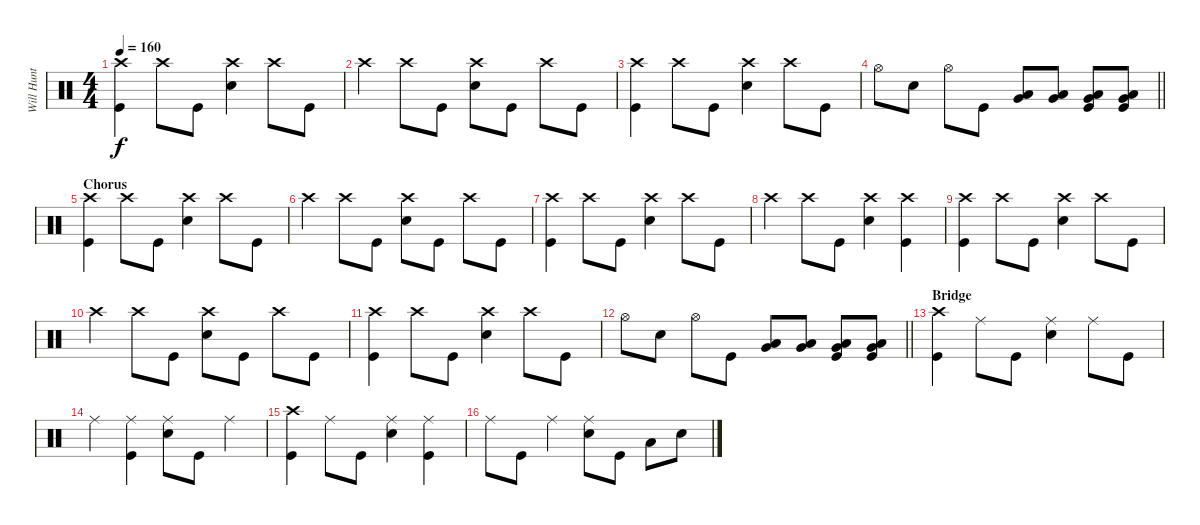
\track ("Will Hunt" "Will Hunt") {instrument percussion}
\staff {score}
\articulation defaults
\ts (4 4)
\tempo 160
\clef neutral
\ks c
("Crash high (hit)" "Kick (hit)").4{dy f} "Crash high (hit)".8 "Kick (hit)".8 ("Crash high (hit)" "Snare (hit) 2").4 "Crash high (hit)".8 "Kick (hit)".8 |
"Crash high (hit)".4 "Crash high (hit)".8 "Kick (hit)".8 ("Crash high (hit)" "Snare (hit) 2").8 "Kick (hit)".8 "Crash high (hit)".8 "Kick (hit)".8 |
("Crash high (hit)" "Kick (hit)").4 "Crash high (hit)".8 "Kick (hit)".8 ("Crash high (hit)" "Snare (hit) 2").4 "Crash high (hit)".8 "Kick (hit)".8 |
\barLineRight lightlight "Hi-Hat (open)".8 "Snare (hit) 2".8 "Hi-Hat (open)".8 "Kick (hit)".8
("Very Low Tom (hit)" "Low Floor Tom (hit)").8 ("Very Low Tom (hit)" "Low Floor Tom (hit)").8 ("Very Low Tom (hit)" "Low Floor Tom (hit)" "Kick (hit)").8 ("Very Low Tom (hit)" "Low Floor Tom (hit)" "Kick (hit)").8 |
\section ("" "Chorus")
("Crash high (hit)" "Kick (hit)").4 "Crash high (hit)".8 "Kick (hit)".8 ("Crash high (hit)" "Snare (hit) 2").4 "Crash high (hit)".8 "Kick (hit)".8 |
"Crash high (hit)".4 "Crash high (hit)".8 "Kick (hit)".8 ("Crash high (hit)" "Snare (hit) 2").8 "Kick (hit)".8 "Crash high (hit)".8 "Kick (hit)".8 |
("Crash high (hit)" "Kick (hit)").4 "Crash high (hit)".8 "Kick (hit)".8 ("Crash high (hit)" "Snare (hit) 2").4 "Crash high (hit)".8 "Kick (hit)".8 |
"Crash high (hit)".4 "Crash high (hit)".8 "Kick (hit)".8 ("Crash high (hit)" "Snare (hit) 2").4 ("Crash high (hit)" "Kick (hit)").4 |
("Crash high (hit)" "Kick (hit)").4 "Crash high (hit)".8 "Kick (hit)".8 ("Crash high (hit)" "Snare (hit) 2").4 "Crash high (hit)".8 "Kick (hit)".8 |
"Crash high (hit)".4 "Crash high (hit)".8 "Kick (hit)".8 ("Crash high (hit)" "Snare (hit) 2").8 "Kick (hit)".8 "Crash high (hit)".8 "Kick (hit)".8 |
("Crash high (hit)" "Kick (hit)").4 "Crash high (hit)".8 "Kick (hit)".8 ("Crash high (hit)" "Snare (hit) 2").4 "Crash high (hit)".8 "Kick (hit)".8 |
\barLineRight lightlight "Hi-Hat (open)".8 "Snare (hit) 2".8 "Hi-Hat (open)".8 "Kick (hit)".8
("Very Low Tom (hit)" "Low Floor Tom (hit)").8 ("Very Low Tom (hit)" "Low Floor Tom (hit)").8 ("Very Low Tom (hit)" "Low Floor Tom (hit)" "Kick (hit)").8 ("Very Low Tom (hit)" "Low Floor Tom (hit)" "Kick (hit)").8 |
\section ("" "Bridge")
("Crash high (hit)" "Kick (hit)").4 "Ride (middle)".8 "Kick (hit)".8 ("Ride (middle)" "Snare (hit) 2").4 "Ride (middle)".8 "Kick (hit)".8 |
"Ride (middle)".4 ("Ride (middle)" "Kick (hit)").4 ("Ride (middle)" "Snare (hit) 2").8 "Kick (hit)".8 "Ride (middle)".4 |
("Crash high (hit)" "Kick (hit)").4 "Ride (middle)".8 "Kick (hit)".8 ("Ride (middle)" "Snare (hit) 2").4 ("Ride (middle)" "Kick (hit)").4 |
"Ride (middle)".8 "Kick (hit)".8 "Ride (middle)".4 ("Ride (middle)" "Snare (hit) 2").8 "Kick (hit)".8 "Low Floor Tom (hit)".8 "Snare (hit) 2".8
